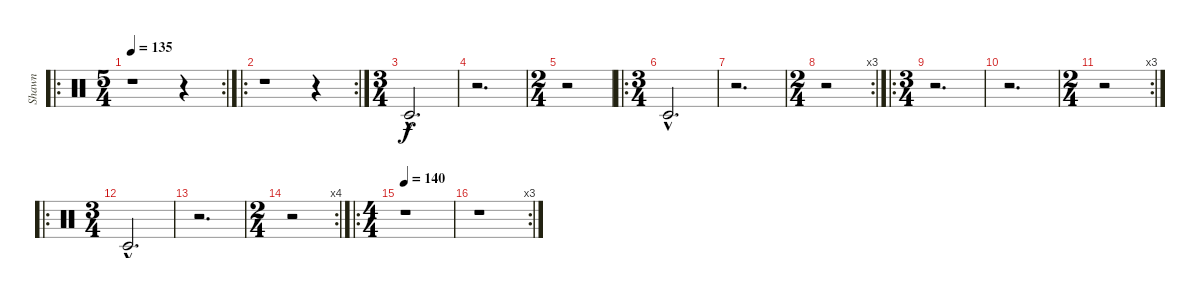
\track ("Shawn" "Shawn") {instrument percussion}
\staff {score}
\articulation defaults
\ro
\rc 2
\ts (5 4)
\tempo 135
\clef neutral
\ks c
r.1{dy mp} r.4 |
\ro
\rc 2
r.1 r.4 |
\ts (3 4)
"Timbale low (hit)"{hac}.2{d dy f} |
r.2{d} |
\ts (2 4)
r.2 |
\ro
\ts (3 4)
"Timbale low (hit)"{hac}.2{d} |
r.2{d} |
\rc 3
\ts (2 4)
r.2 |
\ro
\ts (3 4)
r.2{d} |
r.2{d} |
\rc 3
\ts (2 4)
r.2 |
\ro
\ts (3 4)
"Timbale low (hit)"{hac}.2{d} |
r.2{d} |
\rc 4
\ts (2 4)
r.2 |
\ro
\ts (4 4)
\tempo 140
r.1 |
\rc 3
r.1
